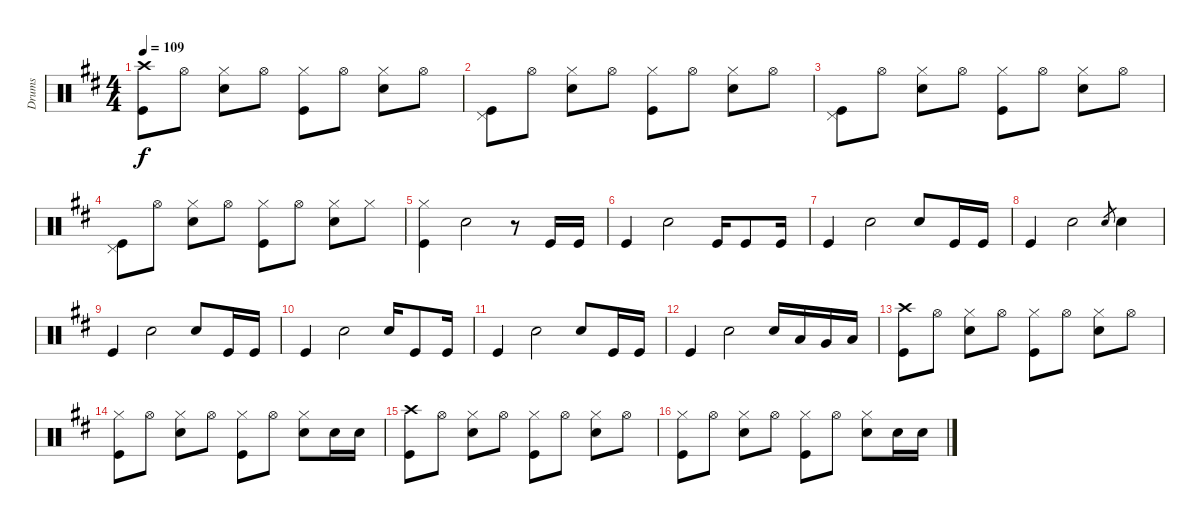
\track ("Drums" "Drums") {instrument percussion}
\staff {score}
\articulation defaults
\ts (4 4)
\tempo 109
\clef neutral
\ks d
("Crash high (hit)" "Kick (hit)").8{dy f} "Hi-Hat (open)".8 ("Hi-Hat (closed)" "Snare (hit) 2").8 "Hi-Hat (open)".8 ("Hi-Hat (closed)" "Kick (hit)").8 "Hi-Hat (open)".8 ("Hi-Hat (closed)" "Snare (hit) 2").8 "Hi-Hat (open)".8 |
("Pedal Hi-Hat (hit)" "Kick (hit)").8 "Hi-Hat (open)".8 ("Hi-Hat (closed)" "Snare (hit) 2").8 "Hi-Hat (open)".8 ("Hi-Hat (closed)" "Kick (hit)").8 "Hi-Hat (open)".8 ("Hi-Hat (closed)" "Snare (hit) 2").8 "Hi-Hat (open)".8 |
("Pedal Hi-Hat (hit)" "Kick (hit)").8 "Hi-Hat (open)".8 ("Hi-Hat (closed)" "Snare (hit) 2").8 "Hi-Hat (open)".8 ("Hi-Hat (closed)" "Kick (hit)").8 "Hi-Hat (open)".8 ("Hi-Hat (closed)" "Snare (hit) 2").8 "Hi-Hat (open)".8 |
("Pedal Hi-Hat (hit)" "Kick (hit)").8 "Hi-Hat (open)".8 ("Hi-Hat (closed)" "Snare (hit) 2").8 "Hi-Hat (open)".8 ("Hi-Hat (closed)" "Kick (hit)").8 "Hi-Hat (open)".8 ("Hi-Hat (closed)" "Snare (hit) 2").8 "Hi-Hat (closed)".8 |
("Hi-Hat (closed)" "Kick (hit)").4 "Snare (hit) 2".2 r.8 "Kick (hit)".16 "Kick (hit)".16 |
"Kick (hit)".4 "Snare (hit) 2".2 "Kick (hit)".16 "Kick (hit)".8 "Kick (hit)".16 |
"Kick (hit)".4 "Snare (hit) 2".2 "Snare (hit) 2".8 "Kick (hit)".16 "Kick (hit)".16 |
"Kick (hit)".4 "Snare (hit) 2".2 "Snare (hit) 2".8{gr} "Electric Snare (hit)".4 |
"Kick (hit)".4 "Snare (hit) 2".2 "Snare (hit) 2".8 "Kick (hit)".16 "Kick (hit)".16 |
"Kick (hit)".4 "Snare (hit) 2".2 "Snare (hit) 2".16 "Kick (hit)".8 "Kick (hit)".16 |
"Kick (hit)".4 "Snare (hit) 2".2 "Snare (hit) 2".8 "Kick (hit)".16 "Kick (hit)".16 |
"Kick (hit)".4 "Snare (hit) 2".2 "Electric Snare (hit)".16 "Low Tom (hit)".16 "Very Low Tom (hit)".16 "Low Floor Tom (hit)".16 |
("Crash high (hit)" "Kick (hit)").8 "Hi-Hat (open)".8 ("Hi-Hat (closed)" "Snare (hit) 2").8 "Hi-Hat (open)".8 ("Hi-Hat (closed)" "Kick (hit)").8 "Hi-Hat (open)".8 ("Hi-Hat (closed)" "Snare (hit) 2").8 "Hi-Hat (open)".8 |
("Hi-Hat (closed)" "Kick (hit)").8 "Hi-Hat (open)".8 ("Hi-Hat (closed)" "Snare (hit) 2").8 "Hi-Hat (open)".8 ("Hi-Hat (closed)" "Kick (hit)").8 "Hi-Hat (open)".8 ("Hi-Hat (closed)" "Snare (hit) 2").8 "Snare (hit) 2".16 "Snare (hit) 2".16 |
("Crash high (hit)" "Kick (hit)").8 "Hi-Hat (open)".8 ("Hi-Hat (closed)" "Snare (hit) 2").8 "Hi-Hat (open)".8 ("Hi-Hat (closed)" "Kick (hit)").8 "Hi-Hat (open)".8 ("Hi-Hat (closed)" "Snare (hit) 2").8 "Hi-Hat (open)".8 |
("Hi-Hat (closed)" "Kick (hit)").8 "Hi-Hat (open)".8 ("Hi-Hat (closed)" "Snare (hit) 2").8 "Hi-Hat (open)".8 ("Hi-Hat (closed)" "Kick (hit)").8 "Hi-Hat (open)".8 ("Hi-Hat (closed)" "Snare (hit) 2").8 "Snare (hit) 2".16 "Snare (hit) 2".16
